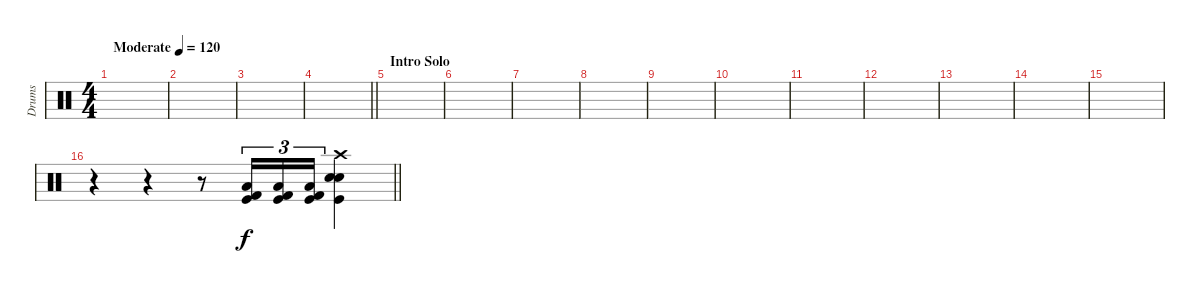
\track ("Drums" "Drums") {instrument percussion}
\staff {score}
\articulation defaults
\ts (4 4)
\tempo (120 "Moderate")
\clef neutral
\ks c
|
|
|
\barLineRight lightlight
|
\section ("" "Intro Solo")
|
|
|
|
|
|
|
|
|
|
|
\barLineRight lightlight
r.4 r.4 r.8 ("Low Floor Tom (hit)" "Kick (hit) 2" "Kick (hit)").16{tu (3 2)} ("Low Floor Tom (hit)" "Kick (hit) 2" "Kick (hit)").16{tu (3 2)} ("Low Floor Tom (hit)" "Kick (hit) 2" "Kick (hit)").16{tu (3 2)} ("Kick (hit)" "Electric Snare (hit)" "Electric Snare (hit)" "Crash high (hit)").4
